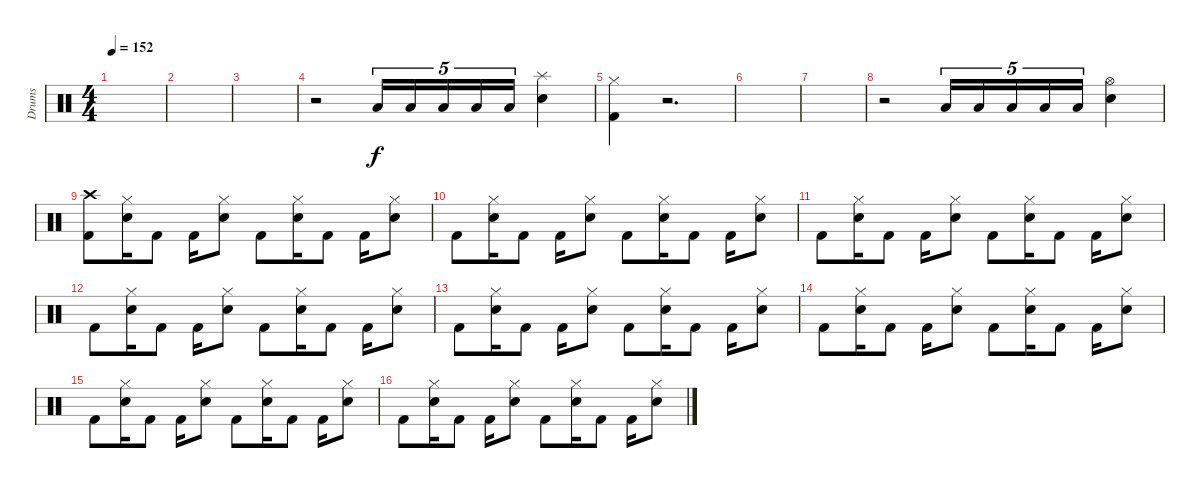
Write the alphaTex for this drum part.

\track ("Drums" "Drums") {instrument percussion}
\staff {score}
\articulation defaults
\ts (4 4)
\section ("" "")
\tempo 152
\clef neutral
\ks c
|
|
|
r.2 "Low Tom (hit)".16{tu (5 4)} "Low Tom (hit)".16{tu (5 4)} "Low Tom (hit)".16{tu (5 4)} "Low Tom (hit)".16{tu (5 4)} "Low Tom (hit)".16{tu (5 4)} ("Splash (hit)" "Snare (hit) 2").4 |
("Hi-Hat (closed)" "Kick (hit) 2").4 r.2{d} |
|
|
r.2 "Low Tom (hit)".16{tu (5 4)} "Low Tom (hit)".16{tu (5 4)} "Low Tom (hit)".16{tu (5 4)} "Low Tom (hit)".16{tu (5 4)} "Low Tom (hit)".16{tu (5 4)} ("Hi-Hat (open)" "Snare (hit) 2").4 |
("Crash high (hit)" "Kick (hit) 2").8 ("Hi-Hat (closed)" "Snare (hit) 2").16 "Kick (hit) 2".8 "Kick (hit) 2".16 ("Hi-Hat (closed)" "Snare (hit) 2").8 "Kick (hit) 2".8 ("Hi-Hat (closed)" "Snare (hit) 2").16 "Kick (hit) 2".8 "Kick (hit) 2".16 ("Hi-Hat (closed)" "Snare (hit) 2").8 |
"Kick (hit) 2".8 ("Hi-Hat (closed)" "Snare (hit) 2").16 "Kick (hit) 2".8 "Kick (hit) 2".16 ("Hi-Hat (closed)" "Snare (hit) 2").8 "Kick (hit) 2".8 ("Hi-Hat (closed)" "Snare (hit) 2").16 "Kick (hit) 2".8 "Kick (hit) 2".16 ("Hi-Hat (closed)" "Snare (hit) 2").8 |
"Kick (hit) 2".8 ("Hi-Hat (closed)" "Snare (hit) 2").16 "Kick (hit) 2".8 "Kick (hit) 2".16 ("Hi-Hat (closed)" "Snare (hit) 2").8 "Kick (hit) 2".8 ("Hi-Hat (closed)" "Snare (hit) 2").16 "Kick (hit) 2".8 "Kick (hit) 2".16 ("Hi-Hat (closed)" "Snare (hit) 2").8 |
"Kick (hit) 2".8 ("Hi-Hat (closed)" "Snare (hit) 2").16 "Kick (hit) 2".8 "Kick (hit) 2".16 ("Hi-Hat (closed)" "Snare (hit) 2").8 "Kick (hit) 2".8 ("Hi-Hat (closed)" "Snare (hit) 2").16 "Kick (hit) 2".8 "Kick (hit) 2".16 ("Hi-Hat (closed)" "Snare (hit) 2").8 |
"Kick (hit) 2".8 ("Hi-Hat (closed)" "Snare (hit) 2").16 "Kick (hit) 2".8 "Kick (hit) 2".16 ("Hi-Hat (closed)" "Snare (hit) 2").8 "Kick (hit) 2".8 ("Hi-Hat (closed)" "Snare (hit) 2").16 "Kick (hit) 2".8 "Kick (hit) 2".16 ("Hi-Hat (closed)" "Snare (hit) 2").8 |
"Kick (hit) 2".8 ("Hi-Hat (closed)" "Snare (hit) 2").16 "Kick (hit) 2".8 "Kick (hit) 2".16 ("Hi-Hat (closed)" "Snare (hit) 2").8 "Kick (hit) 2".8 ("Hi-Hat (closed)" "Snare (hit) 2").16 "Kick (hit) 2".8 "Kick (hit) 2".16 ("Hi-Hat (closed)" "Snare (hit) 2").8 |
"Kick (hit) 2".8 ("Hi-Hat (closed)" "Snare (hit) 2").16 "Kick (hit) 2".8 "Kick (hit) 2".16 ("Hi-Hat (closed)" "Snare (hit) 2").8 "Kick (hit) 2".8 ("Hi-Hat (closed)" "Snare (hit) 2").16 "Kick (hit) 2".8 "Kick (hit) 2".16 ("Hi-Hat (closed)" "Snare (hit) 2").8 |
"Kick (hit) 2".8 ("Hi-Hat (closed)" "Snare (hit) 2").16 "Kick (hit) 2".8 "Kick (hit) 2".16 ("Hi-Hat (closed)" "Snare (hit) 2").8 "Kick (hit) 2".8 ("Hi-Hat (closed)" "Snare (hit) 2").16 "Kick (hit) 2".8 "Kick (hit) 2".16 ("Hi-Hat (closed)" "Snare (hit) 2").8
